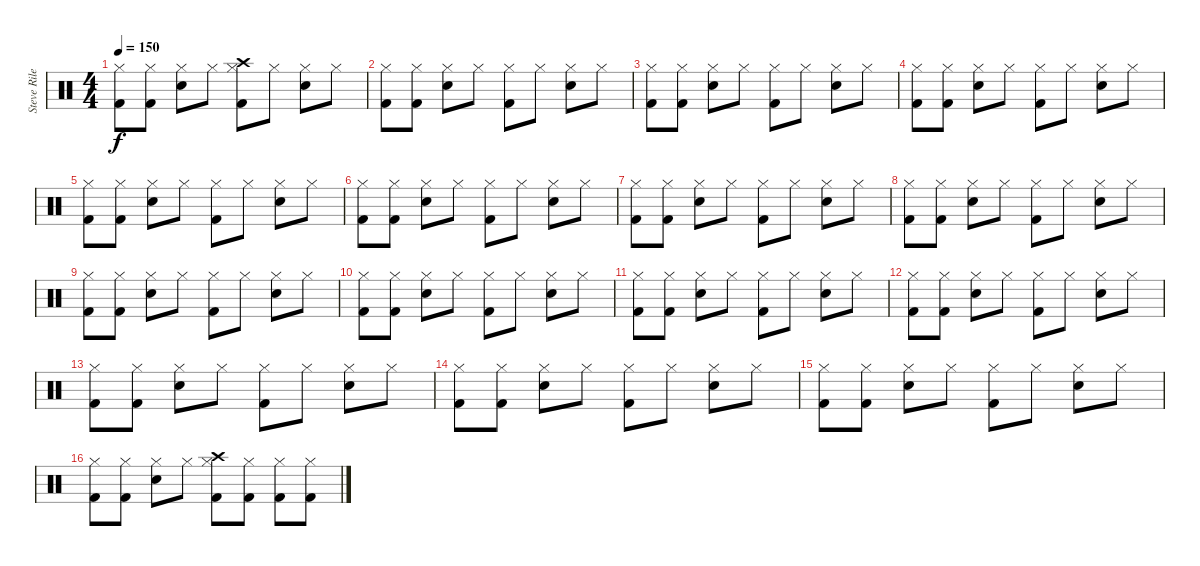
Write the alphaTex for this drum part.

\track ("Steve Riley-Drums" "Steve Rile") {instrument percussion}
\staff {score}
\articulation defaults
\ts (4 4)
\tempo 150
\clef neutral
\ks c
("Kick (hit) 2" "Hi-Hat (closed)").8{dy f} ("Kick (hit) 2" "Hi-Hat (closed)").8 ("Snare (hit) 2" "Hi-Hat (closed)").8 "Hi-Hat (closed)".8 ("Crash high (hit)" "Kick (hit) 2" "Hi-Hat (closed)").8 "Hi-Hat (closed)".8 ("Snare (hit) 2" "Hi-Hat (closed)").8 "Hi-Hat (closed)".8 |
("Kick (hit) 2" "Hi-Hat (closed)").8 ("Kick (hit) 2" "Hi-Hat (closed)").8 ("Snare (hit) 2" "Hi-Hat (closed)").8 "Hi-Hat (closed)".8 ("Kick (hit) 2" "Hi-Hat (closed)").8 "Hi-Hat (closed)".8 ("Snare (hit) 2" "Hi-Hat (closed)").8 "Hi-Hat (closed)".8 |
("Kick (hit) 2" "Hi-Hat (closed)").8 ("Kick (hit) 2" "Hi-Hat (closed)").8 ("Snare (hit) 2" "Hi-Hat (closed)").8 "Hi-Hat (closed)".8 ("Kick (hit) 2" "Hi-Hat (closed)").8 "Hi-Hat (closed)".8 ("Snare (hit) 2" "Hi-Hat (closed)").8 "Hi-Hat (closed)".8 |
("Kick (hit) 2" "Hi-Hat (closed)").8 ("Kick (hit) 2" "Hi-Hat (closed)").8 ("Snare (hit) 2" "Hi-Hat (closed)").8 "Hi-Hat (closed)".8 ("Kick (hit) 2" "Hi-Hat (closed)").8 "Hi-Hat (closed)".8 ("Snare (hit) 2" "Hi-Hat (closed)").8 "Hi-Hat (closed)".8 |
("Kick (hit) 2" "Hi-Hat (closed)").8 ("Kick (hit) 2" "Hi-Hat (closed)").8 ("Snare (hit) 2" "Hi-Hat (closed)").8 "Hi-Hat (closed)".8 ("Kick (hit) 2" "Hi-Hat (closed)").8 "Hi-Hat (closed)".8 ("Snare (hit) 2" "Hi-Hat (closed)").8 "Hi-Hat (closed)".8 |
("Kick (hit) 2" "Hi-Hat (closed)").8 ("Kick (hit) 2" "Hi-Hat (closed)").8 ("Snare (hit) 2" "Hi-Hat (closed)").8 "Hi-Hat (closed)".8 ("Kick (hit) 2" "Hi-Hat (closed)").8 "Hi-Hat (closed)".8 ("Snare (hit) 2" "Hi-Hat (closed)").8 "Hi-Hat (closed)".8 |
("Kick (hit) 2" "Hi-Hat (closed)").8 ("Kick (hit) 2" "Hi-Hat (closed)").8 ("Snare (hit) 2" "Hi-Hat (closed)").8 "Hi-Hat (closed)".8 ("Kick (hit) 2" "Hi-Hat (closed)").8 "Hi-Hat (closed)".8 ("Snare (hit) 2" "Hi-Hat (closed)").8 "Hi-Hat (closed)".8 |
("Kick (hit) 2" "Hi-Hat (closed)").8 ("Kick (hit) 2" "Hi-Hat (closed)").8 ("Snare (hit) 2" "Hi-Hat (closed)").8 "Hi-Hat (closed)".8 ("Kick (hit) 2" "Hi-Hat (closed)").8 "Hi-Hat (closed)".8 ("Snare (hit) 2" "Hi-Hat (closed)").8 "Hi-Hat (closed)".8 |
("Kick (hit) 2" "Hi-Hat (closed)").8 ("Kick (hit) 2" "Hi-Hat (closed)").8 ("Snare (hit) 2" "Hi-Hat (closed)").8 "Hi-Hat (closed)".8 ("Kick (hit) 2" "Hi-Hat (closed)").8 "Hi-Hat (closed)".8 ("Snare (hit) 2" "Hi-Hat (closed)").8 "Hi-Hat (closed)".8 |
("Kick (hit) 2" "Hi-Hat (closed)").8 ("Kick (hit) 2" "Hi-Hat (closed)").8 ("Snare (hit) 2" "Hi-Hat (closed)").8 "Hi-Hat (closed)".8 ("Kick (hit) 2" "Hi-Hat (closed)").8 "Hi-Hat (closed)".8 ("Snare (hit) 2" "Hi-Hat (closed)").8 "Hi-Hat (closed)".8 |
("Kick (hit) 2" "Hi-Hat (closed)").8 ("Kick (hit) 2" "Hi-Hat (closed)").8 ("Snare (hit) 2" "Hi-Hat (closed)").8 "Hi-Hat (closed)".8 ("Kick (hit) 2" "Hi-Hat (closed)").8 "Hi-Hat (closed)".8 ("Snare (hit) 2" "Hi-Hat (closed)").8 "Hi-Hat (closed)".8 |
("Kick (hit) 2" "Hi-Hat (closed)").8 ("Kick (hit) 2" "Hi-Hat (closed)").8 ("Snare (hit) 2" "Hi-Hat (closed)").8 "Hi-Hat (closed)".8 ("Kick (hit) 2" "Hi-Hat (closed)").8 "Hi-Hat (closed)".8 ("Snare (hit) 2" "Hi-Hat (closed)").8 "Hi-Hat (closed)".8 |
("Kick (hit) 2" "Hi-Hat (closed)").8 ("Kick (hit) 2" "Hi-Hat (closed)").8 ("Snare (hit) 2" "Hi-Hat (closed)").8 "Hi-Hat (closed)".8 ("Kick (hit) 2" "Hi-Hat (closed)").8 "Hi-Hat (closed)".8 ("Snare (hit) 2" "Hi-Hat (closed)").8 "Hi-Hat (closed)".8 |
("Kick (hit) 2" "Hi-Hat (closed)").8 ("Kick (hit) 2" "Hi-Hat (closed)").8 ("Snare (hit) 2" "Hi-Hat (closed)").8 "Hi-Hat (closed)".8 ("Kick (hit) 2" "Hi-Hat (closed)").8 "Hi-Hat (closed)".8 ("Snare (hit) 2" "Hi-Hat (closed)").8 "Hi-Hat (closed)".8 |
("Kick (hit) 2" "Hi-Hat (closed)").8 ("Kick (hit) 2" "Hi-Hat (closed)").8 ("Snare (hit) 2" "Hi-Hat (closed)").8 "Hi-Hat (closed)".8 ("Kick (hit) 2" "Hi-Hat (closed)").8 "Hi-Hat (closed)".8 ("Snare (hit) 2" "Hi-Hat (closed)").8 "Hi-Hat (closed)".8 |
("Kick (hit) 2" "Hi-Hat (closed)").8 ("Kick (hit) 2" "Hi-Hat (closed)").8 ("Snare (hit) 2" "Hi-Hat (closed)").8 "Hi-Hat (closed)".8 ("Crash high (hit)" "Kick (hit) 2" "Hi-Hat (closed)").8 ("Kick (hit) 2" "Hi-Hat (closed)").8 ("Kick (hit) 2" "Hi-Hat (closed)").8 ("Kick (hit) 2" "Hi-Hat (closed)").8
